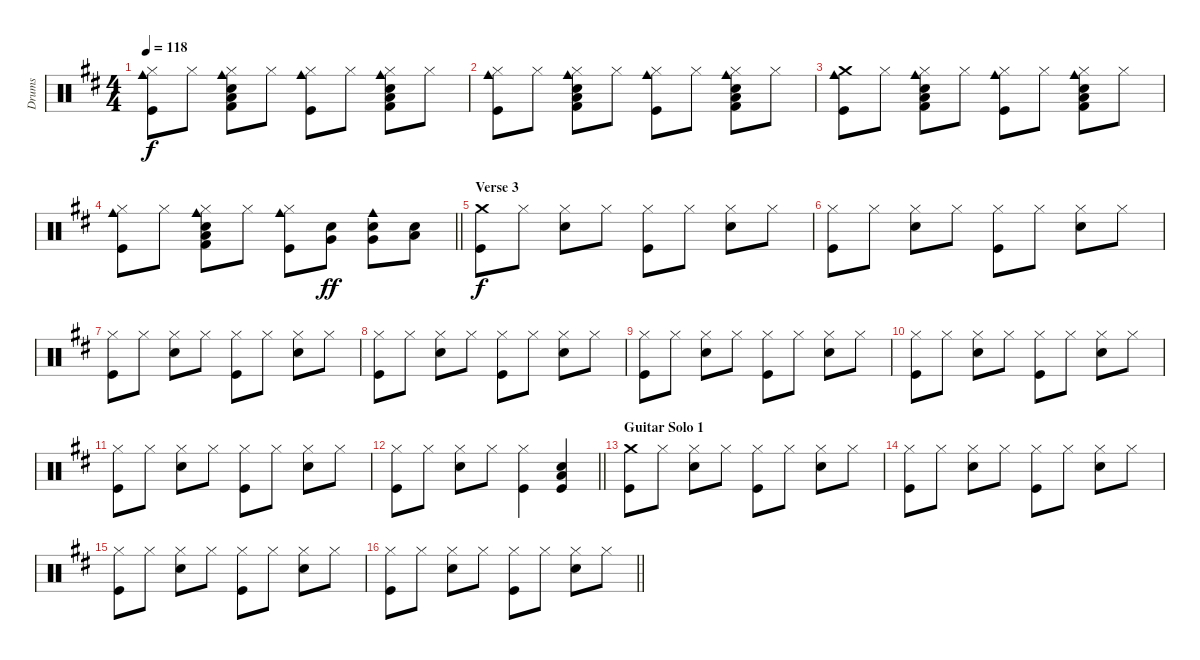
\track ("Drums" "Drums") {instrument percussion}
\staff {score}
\articulation defaults
\ts (4 4)
\tempo 118
\clef neutral
\ks d
("Hi-Hat (closed)" "Cowbell medium (hit)" "Kick (hit)").8{dy f} "Hi-Hat (closed)".8 ("Hi-Hat (closed)" "Electric Snare (hit)" "Low Tom (hit)" "Cowbell medium (hit)" "Kick (hit) 2").8 "Hi-Hat (closed)".8 ("Hi-Hat (closed)" "Cowbell medium (hit)" "Kick (hit)").8 "Hi-Hat (closed)".8 ("Hi-Hat (closed)" "Electric Snare (hit)" "Low Tom (hit)" "Cowbell medium (hit)" "Kick (hit) 2").8 "Hi-Hat (closed)".8 |
("Hi-Hat (closed)" "Cowbell medium (hit)" "Kick (hit)").8 "Hi-Hat (closed)".8 ("Hi-Hat (closed)" "Electric Snare (hit)" "Low Tom (hit)" "Cowbell medium (hit)" "Kick (hit) 2").8 "Hi-Hat (closed)".8 ("Hi-Hat (closed)" "Cowbell medium (hit)" "Kick (hit)").8 "Hi-Hat (closed)".8 ("Hi-Hat (closed)" "Electric Snare (hit)" "Low Tom (hit)" "Cowbell medium (hit)" "Kick (hit) 2").8 "Hi-Hat (closed)".8 |
("Crash medium (hit)" "Cowbell medium (hit)" "Kick (hit)").8 "Hi-Hat (closed)".8 ("Hi-Hat (closed)" "Electric Snare (hit)" "Low Tom (hit)" "Cowbell medium (hit)" "Kick (hit) 2").8 "Hi-Hat (closed)".8 ("Hi-Hat (closed)" "Cowbell medium (hit)" "Kick (hit)").8 "Hi-Hat (closed)".8 ("Hi-Hat (closed)" "Electric Snare (hit)" "Low Tom (hit)" "Cowbell medium (hit)" "Kick (hit) 2").8 "Hi-Hat (closed)".8 |
\barLineRight lightlight
("Hi-Hat (closed)" "Cowbell medium (hit)" "Kick (hit)").8 "Hi-Hat (closed)".8 ("Hi-Hat (closed)" "Electric Snare (hit)" "Low Tom (hit)" "Cowbell medium (hit)" "Kick (hit) 2").8 "Hi-Hat (closed)".8 ("Hi-Hat (closed)" "Cowbell medium (hit)" "Kick (hit)").8 ("Electric Snare (hit)" "Very Low Tom (hit)").8{dy ff} ("Electric Snare (hit)" "Very Low Tom (hit)" "Cowbell medium (hit)").8 ("Electric Snare (hit)" "Low Tom (hit)").8 |
\section ("" "Verse 3")
("Crash medium (hit)" "Kick (hit)").8{dy f} "Hi-Hat (closed)".8 ("Hi-Hat (closed)" "Electric Snare (hit)").8 "Hi-Hat (closed)".8 ("Hi-Hat (closed)" "Kick (hit)").8 "Hi-Hat (closed)".8 ("Hi-Hat (closed)" "Electric Snare (hit)").8 "Hi-Hat (closed)".8 |
("Hi-Hat (closed)" "Kick (hit)").8 "Hi-Hat (closed)".8 ("Hi-Hat (closed)" "Electric Snare (hit)").8 "Hi-Hat (closed)".8 ("Hi-Hat (closed)" "Kick (hit)").8 "Hi-Hat (closed)".8 ("Hi-Hat (closed)" "Electric Snare (hit)").8 "Hi-Hat (closed)".8 |
("Hi-Hat (closed)" "Kick (hit)").8 "Hi-Hat (closed)".8 ("Hi-Hat (closed)" "Electric Snare (hit)").8 "Hi-Hat (closed)".8 ("Hi-Hat (closed)" "Kick (hit)").8 "Hi-Hat (closed)".8 ("Hi-Hat (closed)" "Electric Snare (hit)").8 "Hi-Hat (closed)".8 |
("Hi-Hat (closed)" "Kick (hit)").8 "Hi-Hat (closed)".8 ("Hi-Hat (closed)" "Electric Snare (hit)").8 "Hi-Hat (closed)".8 ("Hi-Hat (closed)" "Kick (hit)").8 "Hi-Hat (closed)".8 ("Hi-Hat (closed)" "Electric Snare (hit)").8 "Hi-Hat (closed)".8 |
("Hi-Hat (closed)" "Kick (hit)").8 "Hi-Hat (closed)".8 ("Hi-Hat (closed)" "Electric Snare (hit)").8 "Hi-Hat (closed)".8 ("Hi-Hat (closed)" "Kick (hit)").8 "Hi-Hat (closed)".8 ("Hi-Hat (closed)" "Electric Snare (hit)").8 "Hi-Hat (closed)".8 |
("Hi-Hat (closed)" "Kick (hit)").8 "Hi-Hat (closed)".8 ("Hi-Hat (closed)" "Electric Snare (hit)").8 "Hi-Hat (closed)".8 ("Hi-Hat (closed)" "Kick (hit)").8 "Hi-Hat (closed)".8 ("Hi-Hat (closed)" "Electric Snare (hit)").8 "Hi-Hat (closed)".8 |
("Hi-Hat (closed)" "Kick (hit)").8 "Hi-Hat (closed)".8 ("Hi-Hat (closed)" "Electric Snare (hit)").8 "Hi-Hat (closed)".8 ("Hi-Hat (closed)" "Kick (hit)").8 "Hi-Hat (closed)".8 ("Hi-Hat (closed)" "Electric Snare (hit)").8 "Hi-Hat (closed)".8 |
\barLineRight lightlight
("Hi-Hat (closed)" "Kick (hit)").8 "Hi-Hat (closed)".8 ("Hi-Hat (closed)" "Electric Snare (hit)").8 "Hi-Hat (closed)".8 ("Hi-Hat (closed)" "Kick (hit)").4 ("Electric Snare (hit)" "Low Tom (hit)" "Kick (hit)").4 |
\section ("" "Guitar Solo 1")
("Crash medium (hit)" "Kick (hit)").8 "Hi-Hat (closed)".8 ("Hi-Hat (closed)" "Electric Snare (hit)").8 "Hi-Hat (closed)".8 ("Hi-Hat (closed)" "Kick (hit)").8 "Hi-Hat (closed)".8 ("Hi-Hat (closed)" "Electric Snare (hit)").8 "Hi-Hat (closed)".8 |
("Hi-Hat (closed)" "Kick (hit)").8 "Hi-Hat (closed)".8 ("Hi-Hat (closed)" "Electric Snare (hit)").8 "Hi-Hat (closed)".8 ("Hi-Hat (closed)" "Kick (hit)").8 "Hi-Hat (closed)".8 ("Hi-Hat (closed)" "Electric Snare (hit)").8 "Hi-Hat (closed)".8 |
("Hi-Hat (closed)" "Kick (hit)").8 "Hi-Hat (closed)".8 ("Hi-Hat (closed)" "Electric Snare (hit)").8 "Hi-Hat (closed)".8 ("Hi-Hat (closed)" "Kick (hit)").8 "Hi-Hat (closed)".8 ("Hi-Hat (closed)" "Electric Snare (hit)").8 "Hi-Hat (closed)".8 |
\barLineRight lightlight
("Hi-Hat (closed)" "Kick (hit)").8 "Hi-Hat (closed)".8 ("Hi-Hat (closed)" "Electric Snare (hit)").8 "Hi-Hat (closed)".8 ("Hi-Hat (closed)" "Kick (hit)").8 "Hi-Hat (closed)".8 ("Hi-Hat (closed)" "Electric Snare (hit)").8 "Hi-Hat (closed)".8
